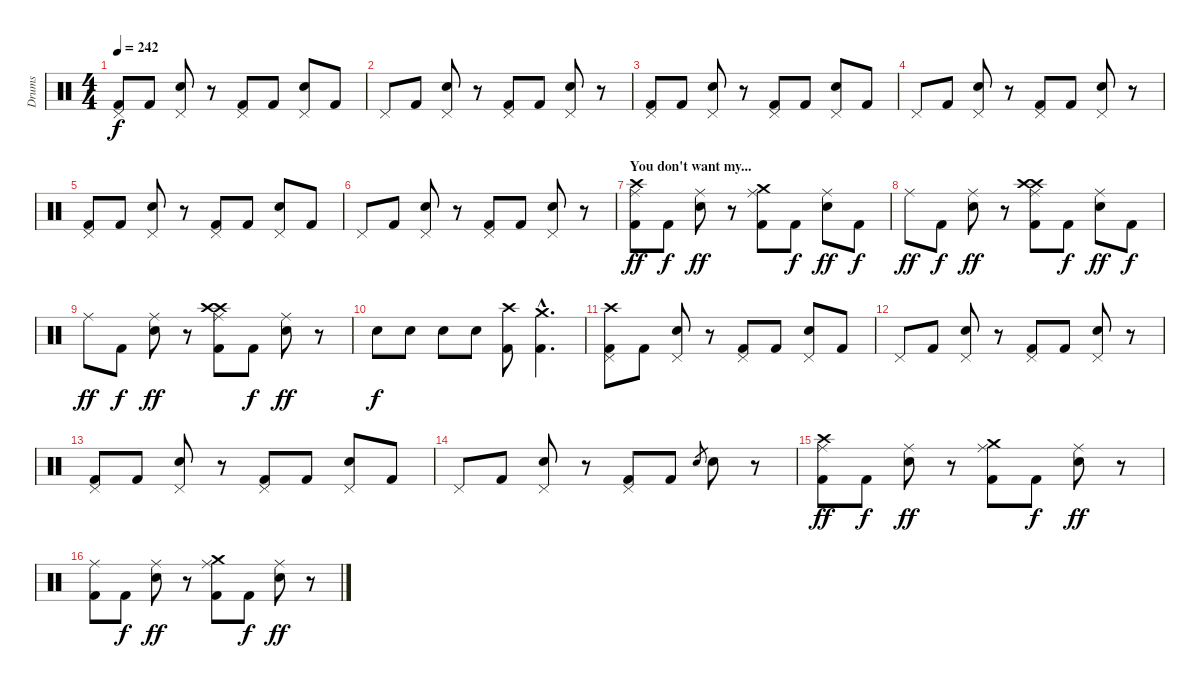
\track ("Drums" "Drums") {instrument percussion}
\staff {score}
\articulation defaults
\ts (4 4)
\tempo 242
\clef neutral
\ks c
("Pedal Hi-Hat (hit)" "Kick (hit) 2").8{dy f} "Kick (hit) 2".8 ("Pedal Hi-Hat (hit)" "Electric Snare (hit)").8 r.8 ("Pedal Hi-Hat (hit)" "Kick (hit) 2").8 "Kick (hit) 2".8 ("Pedal Hi-Hat (hit)" "Electric Snare (hit)").8 "Kick (hit) 2".8 |
"Pedal Hi-Hat (hit)".8 "Kick (hit) 2".8 ("Pedal Hi-Hat (hit)" "Electric Snare (hit)").8 r.8 ("Pedal Hi-Hat (hit)" "Kick (hit) 2").8 "Kick (hit) 2".8 ("Pedal Hi-Hat (hit)" "Electric Snare (hit)").8 r.8 |
("Pedal Hi-Hat (hit)" "Kick (hit) 2").8 "Kick (hit) 2".8 ("Pedal Hi-Hat (hit)" "Electric Snare (hit)").8 r.8 ("Pedal Hi-Hat (hit)" "Kick (hit) 2").8 "Kick (hit) 2".8 ("Pedal Hi-Hat (hit)" "Electric Snare (hit)").8 "Kick (hit) 2".8 |
"Pedal Hi-Hat (hit)".8 "Kick (hit) 2".8 ("Pedal Hi-Hat (hit)" "Electric Snare (hit)").8 r.8 ("Pedal Hi-Hat (hit)" "Kick (hit) 2").8 "Kick (hit) 2".8 ("Pedal Hi-Hat (hit)" "Electric Snare (hit)").8 r.8 |
("Pedal Hi-Hat (hit)" "Kick (hit) 2").8 "Kick (hit) 2".8 ("Pedal Hi-Hat (hit)" "Electric Snare (hit)").8 r.8 ("Pedal Hi-Hat (hit)" "Kick (hit) 2").8 "Kick (hit) 2".8 ("Pedal Hi-Hat (hit)" "Electric Snare (hit)").8 "Kick (hit) 2".8 |
"Pedal Hi-Hat (hit)".8 "Kick (hit) 2".8 ("Pedal Hi-Hat (hit)" "Electric Snare (hit)").8 r.8 ("Pedal Hi-Hat (hit)" "Kick (hit) 2").8 "Kick (hit) 2".8 ("Pedal Hi-Hat (hit)" "Electric Snare (hit)").8 r.8 |
\section ("" "You don't want my...")
("Ride (middle)" "Crash high (hit)" "Kick (hit) 2").8{dy ff} "Kick (hit) 2".8{dy f} ("Ride (middle)" "Electric Snare (hit)").8{dy ff} r.8 ("Ride (middle)" "Crash medium (hit)" "Kick (hit) 2").8 "Kick (hit) 2".8{dy f} ("Ride (middle)" "Electric Snare (hit)").8{dy ff} "Kick (hit) 2".8{dy f} |
"Ride (middle)".8{dy ff} "Kick (hit) 2".8{dy f} ("Ride (middle)" "Electric Snare (hit)").8{dy ff} r.8 ("Ride (middle)" "Crash high (hit)" "Crash high (hit)" "Kick (hit) 2").8 "Kick (hit) 2".8{dy f} ("Ride (middle)" "Electric Snare (hit)").8{dy ff} "Kick (hit) 2".8{dy f} |
"Ride (middle)".8{dy ff} "Kick (hit) 2".8{dy f} ("Ride (middle)" "Electric Snare (hit)").8{dy ff} r.8 ("Ride (middle)" "Crash high (hit)" "Crash high (hit)" "Kick (hit) 2").8 "Kick (hit) 2".8{dy f} ("Ride (middle)" "Electric Snare (hit)").8{dy ff} r.8 |
"Electric Snare (hit)".8{dy f} "Electric Snare (hit)".8 "Electric Snare (hit)".8 "Electric Snare (hit)".8 ("Crash high (hit)" "Kick (hit) 2").8 ("Crash medium (hit)"{hac} "Kick (hit) 2"{hac}).4{d} |
("Pedal Hi-Hat (hit)" "Crash high (hit)" "Kick (hit) 2").8 "Kick (hit) 2".8 ("Pedal Hi-Hat (hit)" "Electric Snare (hit)").8 r.8 ("Pedal Hi-Hat (hit)" "Kick (hit) 2").8 "Kick (hit) 2".8 ("Pedal Hi-Hat (hit)" "Electric Snare (hit)").8 "Kick (hit) 2".8 |
"Pedal Hi-Hat (hit)".8 "Kick (hit) 2".8 ("Pedal Hi-Hat (hit)" "Electric Snare (hit)").8 r.8 ("Pedal Hi-Hat (hit)" "Kick (hit) 2").8 "Kick (hit) 2".8 ("Pedal Hi-Hat (hit)" "Electric Snare (hit)").8 r.8 |
("Pedal Hi-Hat (hit)" "Kick (hit) 2").8 "Kick (hit) 2".8 ("Pedal Hi-Hat (hit)" "Electric Snare (hit)").8 r.8 ("Pedal Hi-Hat (hit)" "Kick (hit) 2").8 "Kick (hit) 2".8 ("Pedal Hi-Hat (hit)" "Electric Snare (hit)").8 "Kick (hit) 2".8 |
"Pedal Hi-Hat (hit)".8 "Kick (hit) 2".8 ("Pedal Hi-Hat (hit)" "Electric Snare (hit)").8 r.8 ("Pedal Hi-Hat (hit)" "Kick (hit) 2").8 "Kick (hit) 2".8 "Electric Snare (hit)".8{gr} "Electric Snare (hit)".8 r.8 |
("Ride (middle)" "Crash high (hit)" "Kick (hit) 2").8{dy ff} "Kick (hit) 2".8{dy f} ("Ride (middle)" "Electric Snare (hit)").8{dy ff} r.8 ("Ride (middle)" "Crash medium (hit)" "Kick (hit) 2").8 "Kick (hit) 2".8{dy f} ("Ride (middle)" "Electric Snare (hit)").8{dy ff} r.8 |
("Ride (middle)" "Kick (hit) 2").8 "Kick (hit) 2".8{dy f} ("Ride (middle)" "Electric Snare (hit)").8{dy ff} r.8 ("Ride (middle)" "Crash medium (hit)" "Kick (hit) 2").8 "Kick (hit) 2".8{dy f} ("Ride (middle)" "Electric Snare (hit)").8{dy ff} r.8
